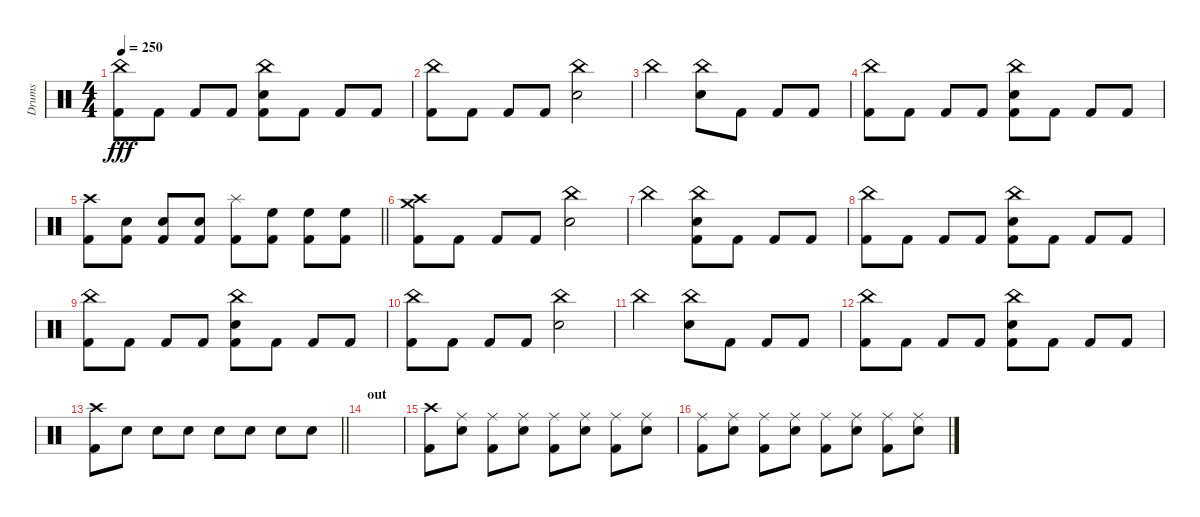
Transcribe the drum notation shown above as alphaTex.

\track ("Drums" "Drums") {solo instrument percussion}
\staff {score}
\articulation defaults
\ts (4 4)
\tempo 250
\clef neutral
\ks c
("China (hit)" "Kick (hit) 2").8{dy fff} "Kick (hit) 2".8 "Kick (hit) 2".8 "Kick (hit) 2".8 ("China (hit)" "Snare (hit) 2" "Kick (hit) 2").8 "Kick (hit) 2".8 "Kick (hit) 2".8 "Kick (hit) 2".8 |
("China (hit)" "Kick (hit) 2").8 "Kick (hit) 2".8 "Kick (hit) 2".8 "Kick (hit) 2".8 ("China (hit)" "Snare (hit) 2").2 |
"China (hit)".2 ("China (hit)" "Snare (hit) 2").8 "Kick (hit) 2".8 "Kick (hit) 2".8 "Kick (hit) 2".8 |
("China (hit)" "Kick (hit) 2").8 "Kick (hit) 2".8 "Kick (hit) 2".8 "Kick (hit) 2".8 ("China (hit)" "Snare (hit) 2" "Kick (hit) 2").8 "Kick (hit) 2".8 "Kick (hit) 2".8 "Kick (hit) 2".8 |
\barLineRight lightlight
("Crash high (hit)" "Kick (hit) 2").8 ("Snare (hit) 2" "Kick (hit) 2").8 ("Snare (hit) 2" "Kick (hit) 2").8 ("Snare (hit) 2" "Kick (hit) 2").8 ("Splash (hit)" "Kick (hit) 2").8 ("High Floor Tom (hit)" "Kick (hit) 2").8 ("High Floor Tom (hit)" "Kick (hit) 2").8 ("High Floor Tom (hit)" "Kick (hit) 2").8 |
("Crash high (hit)" "Crash medium (hit)" "Kick (hit) 2").8 "Kick (hit) 2".8 "Kick (hit) 2".8 "Kick (hit) 2".8 ("China (hit)" "Snare (hit) 2").2 |
"China (hit)".2 ("China (hit)" "Snare (hit) 2" "Kick (hit) 2").8 "Kick (hit) 2".8 "Kick (hit) 2".8 "Kick (hit) 2".8 |
("China (hit)" "Kick (hit) 2").8 "Kick (hit) 2".8 "Kick (hit) 2".8 "Kick (hit) 2".8 ("China (hit)" "Snare (hit) 2" "Kick (hit) 2").8 "Kick (hit) 2".8 "Kick (hit) 2".8 "Kick (hit) 2".8 |
("China (hit)" "Kick (hit) 2").8 "Kick (hit) 2".8 "Kick (hit) 2".8 "Kick (hit) 2".8 ("China (hit)" "Snare (hit) 2" "Kick (hit) 2").8 "Kick (hit) 2".8 "Kick (hit) 2".8 "Kick (hit) 2".8 |
("China (hit)" "Kick (hit) 2").8 "Kick (hit) 2".8 "Kick (hit) 2".8 "Kick (hit) 2".8 ("China (hit)" "Snare (hit) 2").2 |
"China (hit)".2 ("China (hit)" "Snare (hit) 2").8 "Kick (hit) 2".8 "Kick (hit) 2".8 "Kick (hit) 2".8 |
("China (hit)" "Kick (hit) 2").8 "Kick (hit) 2".8 "Kick (hit) 2".8 "Kick (hit) 2".8 ("China (hit)" "Snare (hit) 2" "Kick (hit) 2").8 "Kick (hit) 2".8 "Kick (hit) 2".8 "Kick (hit) 2".8 |
\barLineRight lightlight
("Crash high (hit)" "Kick (hit) 2").8 "Snare (hit) 2".8 "Snare (hit) 2".8 "Snare (hit) 2".8 "Snare (hit) 2".8 "Snare (hit) 2".8 "Snare (hit) 2".8 "Snare (hit) 2".8 |
\section ("" "out")
|
("Crash high (hit)" "Kick (hit) 2").8 ("Ride (middle)" "Snare (hit) 2").8 ("Ride (middle)" "Kick (hit) 2").8 ("Ride (middle)" "Snare (hit) 2").8 ("Ride (middle)" "Kick (hit) 2").8 ("Ride (middle)" "Snare (hit) 2").8 ("Ride (middle)" "Kick (hit) 2").8 ("Ride (middle)" "Snare (hit) 2").8 |
("Ride (middle)" "Kick (hit) 2").8 ("Ride (middle)" "Snare (hit) 2").8 ("Ride (middle)" "Kick (hit) 2").8 ("Ride (middle)" "Snare (hit) 2").8 ("Ride (middle)" "Kick (hit) 2").8 ("Ride (middle)" "Snare (hit) 2").8 ("Ride (middle)" "Kick (hit) 2").8 ("Ride (middle)" "Snare (hit) 2").8
